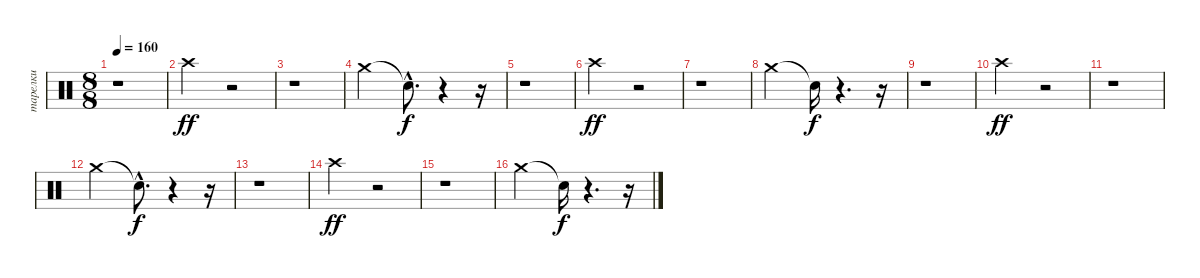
\track ("тарелки" "тарелки") {instrument percussion}
\staff {score}
\articulation defaults
\ts (8 8)
\tempo 160
\clef neutral
\ks c
r.1{dy f} |
"Crash high (hit)".2{dy ff} r.2 |
r.1 |
"Crash medium (hit)".2 "Snare (hit)"{hac t}.8{d dy f} r.4 r.16 |
r.1 |
"Crash high (hit)".2{dy ff} r.2 |
r.1 |
"Crash medium (hit)".2 "Snare (hit)"{t}.16{dy f} r.4{d} r.16 |
r.1 |
"Crash high (hit)".2{dy ff} r.2 |
r.1 |
"Crash medium (hit)".2 "Snare (hit)"{hac t}.8{d dy f} r.4 r.16 |
r.1 |
"Crash high (hit)".2{dy ff} r.2 |
r.1 |
"Crash medium (hit)".2 "Snare (hit)"{t}.16{dy f} r.4{d} r.16
